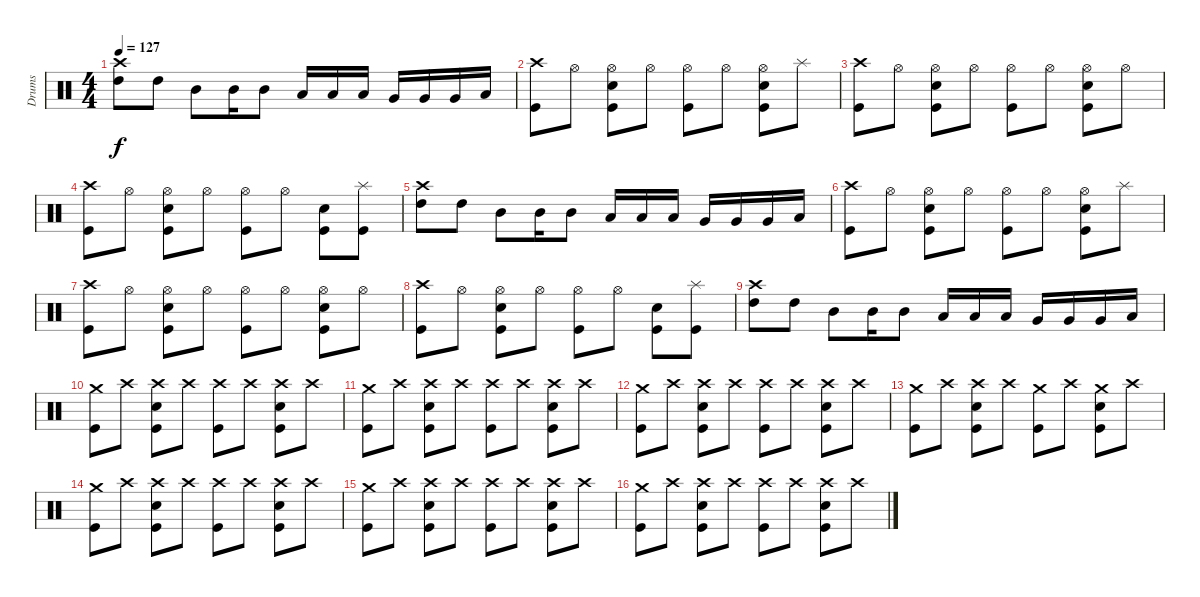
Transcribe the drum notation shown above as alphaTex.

\track ("Drums" "Drums") {instrument percussion}
\staff {score}
\articulation defaults
\ts (4 4)
\tempo 127
\clef neutral
\ks c
("Crash high (hit)" "High Tom (hit)").8{dy f} "High Tom (hit)".8 "Mid Tom (hit)".8 "Mid Tom (hit)".16 "Mid Tom (hit)".8 "Low Tom (hit)".16 "Low Tom (hit)".16 "Low Tom (hit)".16 "Very Low Tom (hit)".16 "Very Low Tom (hit)".16 "Very Low Tom (hit)".16 "Low Floor Tom (hit)".16 |
("Crash high (hit)" "Kick (hit)").8 "Hi-Hat (open)".8 ("Hi-Hat (open)" "Electric Snare (hit)" "Kick (hit)").8 "Hi-Hat (open)".8 ("Hi-Hat (open)" "Kick (hit)").8 "Hi-Hat (open)".8 ("Hi-Hat (open)" "Electric Snare (hit)" "Kick (hit)").8 "Splash (hit)".8 |
("Crash high (hit)" "Kick (hit)").8 "Hi-Hat (open)".8 ("Hi-Hat (open)" "Electric Snare (hit)" "Kick (hit)").8 "Hi-Hat (open)".8 ("Hi-Hat (open)" "Kick (hit)").8 "Hi-Hat (open)".8 ("Hi-Hat (open)" "Electric Snare (hit)" "Kick (hit)").8 "Hi-Hat (open)".8 |
("Crash high (hit)" "Kick (hit)").8 "Hi-Hat (open)".8 ("Hi-Hat (open)" "Electric Snare (hit)" "Kick (hit)").8 "Hi-Hat (open)".8 ("Hi-Hat (open)" "Kick (hit)").8 "Hi-Hat (open)".8 ("Electric Snare (hit)" "Kick (hit)").8 ("Splash (hit)" "Kick (hit)").8 |
("Crash high (hit)" "High Tom (hit)").8 "High Tom (hit)".8 "Mid Tom (hit)".8 "Mid Tom (hit)".16 "Mid Tom (hit)".8 "Low Tom (hit)".16 "Low Tom (hit)".16 "Low Tom (hit)".16 "Very Low Tom (hit)".16 "Very Low Tom (hit)".16 "Very Low Tom (hit)".16 "Low Floor Tom (hit)".16 |
("Crash high (hit)" "Kick (hit)").8 "Hi-Hat (open)".8 ("Hi-Hat (open)" "Electric Snare (hit)" "Kick (hit)").8 "Hi-Hat (open)".8 ("Hi-Hat (open)" "Kick (hit)").8 "Hi-Hat (open)".8 ("Hi-Hat (open)" "Electric Snare (hit)" "Kick (hit)").8 "Splash (hit)".8 |
("Crash high (hit)" "Kick (hit)").8 "Hi-Hat (open)".8 ("Hi-Hat (open)" "Electric Snare (hit)" "Kick (hit)").8 "Hi-Hat (open)".8 ("Hi-Hat (open)" "Kick (hit)").8 "Hi-Hat (open)".8 ("Hi-Hat (open)" "Electric Snare (hit)" "Kick (hit)").8 "Hi-Hat (open)".8 |
("Crash high (hit)" "Kick (hit)").8 "Hi-Hat (open)".8 ("Hi-Hat (open)" "Electric Snare (hit)" "Kick (hit)").8 "Hi-Hat (open)".8 ("Hi-Hat (open)" "Kick (hit)").8 "Hi-Hat (open)".8 ("Electric Snare (hit)" "Kick (hit)").8 ("Splash (hit)" "Kick (hit)").8 |
("Crash high (hit)" "High Tom (hit)").8 "High Tom (hit)".8 "Mid Tom (hit)".8 "Mid Tom (hit)".16 "Mid Tom (hit)".8 "Low Tom (hit)".16 "Low Tom (hit)".16 "Low Tom (hit)".16 "Very Low Tom (hit)".16 "Very Low Tom (hit)".16 "Very Low Tom (hit)".16 "Low Floor Tom (hit)".16 |
("Crash medium (hit)" "Kick (hit)").8 "Crash high (hit)".8 ("Crash high (hit)" "Electric Snare (hit)" "Kick (hit)").8 "Crash high (hit)".8 ("Crash high (hit)" "Kick (hit)").8 "Crash high (hit)".8 ("Crash high (hit)" "Electric Snare (hit)" "Kick (hit)").8 "Crash high (hit)".8 |
("Crash medium (hit)" "Kick (hit)").8 "Crash high (hit)".8 ("Crash high (hit)" "Electric Snare (hit)" "Kick (hit)").8 "Crash high (hit)".8 ("Crash high (hit)" "Kick (hit)").8 "Crash high (hit)".8 ("Crash high (hit)" "Electric Snare (hit)" "Kick (hit)").8 "Crash high (hit)".8 |
("Crash medium (hit)" "Kick (hit)").8 "Crash high (hit)".8 ("Crash high (hit)" "Electric Snare (hit)" "Kick (hit)").8 "Crash high (hit)".8 ("Crash high (hit)" "Kick (hit)").8 "Crash high (hit)".8 ("Crash high (hit)" "Electric Snare (hit)" "Kick (hit)").8 "Crash high (hit)".8 |
("Crash medium (hit)" "Kick (hit)").8 "Crash high (hit)".8 ("Crash high (hit)" "Electric Snare (hit)" "Kick (hit)").8 "Crash high (hit)".8 ("Crash medium (hit)" "Kick (hit)").8 "Crash high (hit)".8 ("Crash medium (hit)" "Electric Snare (hit)" "Kick (hit)").8 "Crash high (hit)".8 |
("Crash medium (hit)" "Kick (hit)").8 "Crash high (hit)".8 ("Crash high (hit)" "Electric Snare (hit)" "Kick (hit)").8 "Crash high (hit)".8 ("Crash high (hit)" "Kick (hit)").8 "Crash high (hit)".8 ("Crash high (hit)" "Electric Snare (hit)" "Kick (hit)").8 "Crash high (hit)".8 |
("Crash medium (hit)" "Kick (hit)").8 "Crash high (hit)".8 ("Crash high (hit)" "Electric Snare (hit)" "Kick (hit)").8 "Crash high (hit)".8 ("Crash high (hit)" "Kick (hit)").8 "Crash high (hit)".8 ("Crash high (hit)" "Electric Snare (hit)" "Kick (hit)").8 "Crash high (hit)".8 |
("Crash medium (hit)" "Kick (hit)").8 "Crash high (hit)".8 ("Crash high (hit)" "Electric Snare (hit)" "Kick (hit)").8 "Crash high (hit)".8 ("Crash high (hit)" "Kick (hit)").8 "Crash high (hit)".8 ("Crash high (hit)" "Electric Snare (hit)" "Kick (hit)").8 "Crash high (hit)".8
